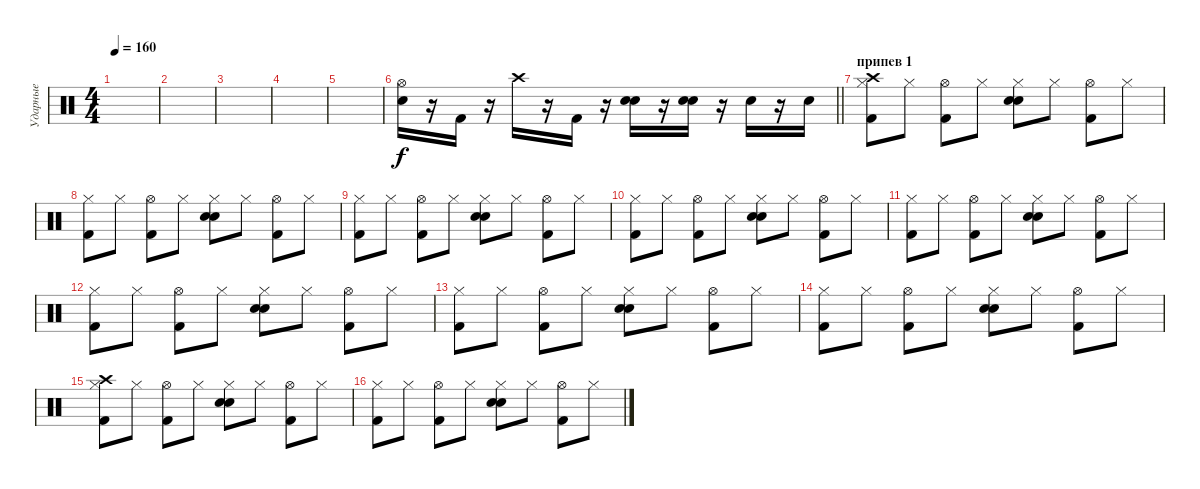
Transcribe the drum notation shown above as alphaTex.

\track ("Ударные" "Ударные") {instrument percussion}
\staff {score}
\articulation defaults
\ts (4 4)
\tempo 160
\clef neutral
\ks c
|
|
|
|
|
\barLineRight lightlight
("Snare (hit) 2" "Hi-Hat (open)").16 r.16 "Kick (hit) 2".16 r.16 "Crash high (hit)".16 r.16 "Kick (hit) 2".16 r.16 ("Snare (hit) 2" "Electric Snare (hit)").16 r.16 ("Snare (hit) 2" "Electric Snare (hit)").16 r.16 "Electric Snare (hit)".16 r.16 "Electric Snare (hit)".16 |
\section ("" "припев 1")
("Hi-Hat (closed)" "Crash high (hit)" "Kick (hit) 2").8 "Hi-Hat (closed)".8 ("Hi-Hat (open)" "Kick (hit) 2").8 "Hi-Hat (closed)".8 ("Hi-Hat (closed)" "Electric Snare (hit)" "Snare (hit) 2").8 "Hi-Hat (closed)".8 ("Hi-Hat (open)" "Kick (hit) 2").8 "Hi-Hat (closed)".8 |
("Hi-Hat (closed)" "Kick (hit) 2").8 "Hi-Hat (closed)".8 ("Hi-Hat (open)" "Kick (hit) 2").8 "Hi-Hat (closed)".8 ("Hi-Hat (closed)" "Snare (hit) 2" "Electric Snare (hit)").8 "Hi-Hat (closed)".8 ("Hi-Hat (open)" "Kick (hit) 2").8 "Hi-Hat (closed)".8 |
("Hi-Hat (closed)" "Kick (hit) 2").8 "Hi-Hat (closed)".8 ("Hi-Hat (open)" "Kick (hit) 2").8 "Hi-Hat (closed)".8 ("Hi-Hat (closed)" "Electric Snare (hit)" "Snare (hit) 2").8 "Hi-Hat (closed)".8 ("Hi-Hat (open)" "Kick (hit) 2").8 "Hi-Hat (closed)".8 |
("Hi-Hat (closed)" "Kick (hit) 2").8 "Hi-Hat (closed)".8 ("Hi-Hat (open)" "Kick (hit) 2").8 "Hi-Hat (closed)".8 ("Hi-Hat (closed)" "Electric Snare (hit)" "Snare (hit) 2").8 "Hi-Hat (closed)".8 ("Hi-Hat (open)" "Kick (hit) 2").8 "Hi-Hat (closed)".8 |
("Hi-Hat (closed)" "Kick (hit) 2").8 "Hi-Hat (closed)".8 ("Hi-Hat (open)" "Kick (hit) 2").8 "Hi-Hat (closed)".8 ("Hi-Hat (closed)" "Snare (hit) 2" "Electric Snare (hit)").8 "Hi-Hat (closed)".8 ("Hi-Hat (open)" "Kick (hit) 2").8 "Hi-Hat (closed)".8 |
("Hi-Hat (closed)" "Kick (hit) 2").8 "Hi-Hat (closed)".8 ("Hi-Hat (open)" "Kick (hit) 2").8 "Hi-Hat (closed)".8 ("Hi-Hat (closed)" "Snare (hit) 2" "Electric Snare (hit)").8 "Hi-Hat (closed)".8 ("Hi-Hat (open)" "Kick (hit) 2").8 "Hi-Hat (closed)".8 |
("Hi-Hat (closed)" "Kick (hit) 2").8 "Hi-Hat (closed)".8 ("Hi-Hat (open)" "Kick (hit) 2").8 "Hi-Hat (closed)".8 ("Hi-Hat (closed)" "Snare (hit) 2" "Electric Snare (hit)").8 "Hi-Hat (closed)".8 ("Hi-Hat (open)" "Kick (hit) 2").8 "Hi-Hat (closed)".8 |
("Hi-Hat (closed)" "Kick (hit) 2").8 "Hi-Hat (closed)".8 ("Hi-Hat (open)" "Kick (hit) 2").8 "Hi-Hat (closed)".8 ("Hi-Hat (closed)" "Snare (hit) 2" "Electric Snare (hit)").8 "Hi-Hat (closed)".8 ("Hi-Hat (open)" "Kick (hit) 2").8 "Hi-Hat (closed)".8 |
("Hi-Hat (closed)" "Crash high (hit)" "Kick (hit) 2").8 "Hi-Hat (closed)".8 ("Hi-Hat (open)" "Kick (hit) 2").8 "Hi-Hat (closed)".8 ("Hi-Hat (closed)" "Snare (hit) 2" "Electric Snare (hit)").8 "Hi-Hat (closed)".8 ("Hi-Hat (open)" "Kick (hit) 2").8 "Hi-Hat (closed)".8 |
("Hi-Hat (closed)" "Kick (hit) 2").8 "Hi-Hat (closed)".8 ("Hi-Hat (open)" "Kick (hit) 2").8 "Hi-Hat (closed)".8 ("Hi-Hat (closed)" "Snare (hit) 2" "Electric Snare (hit)").8 "Hi-Hat (closed)".8 ("Hi-Hat (open)" "Kick (hit) 2").8 "Hi-Hat (closed)".8
